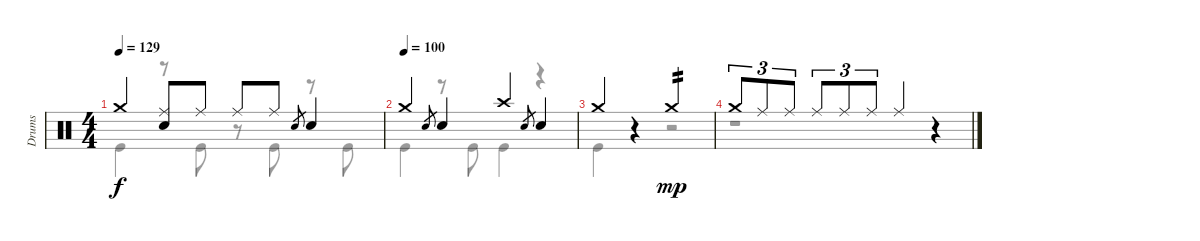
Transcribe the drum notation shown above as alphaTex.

\track ("Drums" "Drums") {instrument percussion}
\staff {score}
\articulation defaults
\voice
\ts (4 4)
\tempo 129
\clef neutral
\ks c "Crash medium (hit)".4{dy f}
("Ride (middle)" "Electric Snare (hit)").8 "Ride (middle)".8 "Ride (middle)".8 "Ride (middle)".8 "Electric Snare (hit)".8{gr} "Electric Snare (hit)".4 |
\tempo (100)
"Crash medium (hit)".4 "Electric Snare (hit)".8{gr} "Electric Snare (hit)".4 "Crash high (hit)".4 "Electric Snare (hit)".8{gr} "Electric Snare (hit)".4 |
"Crash medium (hit)".4 r.4 "Crash medium (hit)".2{tp 2 dy mp} |
"Crash medium (hit)".8{tu (3 2)} "Ride (middle)".8{tu (3 2)} "Ride (middle)".8{tu (3 2)} "Ride (middle)".8{tu (3 2)} "Ride (middle)".8{tu (3 2)} "Ride (middle)".8{tu (3 2)} "Ride (middle)".4 r.4
\voice
\clef neutral
\ottava regular
\simile none
\ks c "Kick (hit)".4{dy f}
r.8 "Kick (hit)".8 r.8 "Kick (hit)".8 r.8 "Kick (hit)".8 |
"Kick (hit)".4 r.8 "Kick (hit)".8 "Kick (hit)".4 r.4 |
"Kick (hit)".4 r.4 r.2 |
r.1
